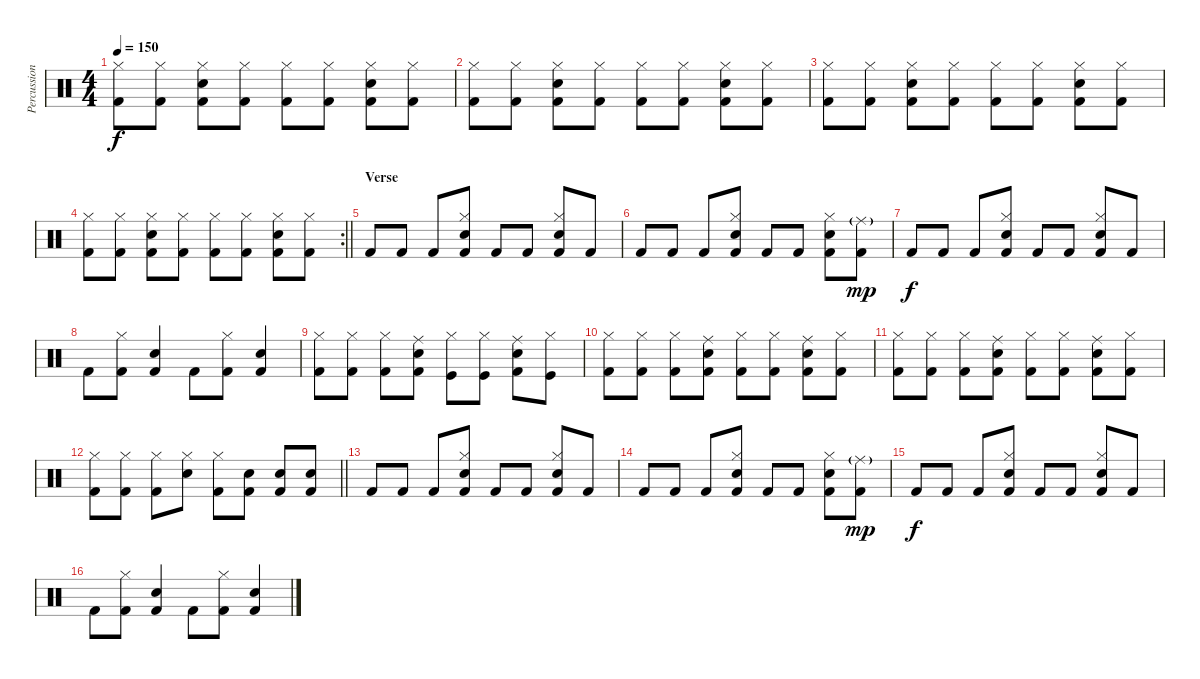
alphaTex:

\track ("Percussion" "Percussion") {instrument percussion}
\staff {score}
\articulation defaults
\ts (4 4)
\tempo 150
\clef neutral
\ks c
("Kick (hit) 2" "Hi-Hat (closed)").8{dy f} ("Kick (hit) 2" "Hi-Hat (closed)").8 ("Kick (hit) 2" "Hi-Hat (closed)" "Snare (hit) 2").8 ("Kick (hit) 2" "Hi-Hat (closed)").8 ("Kick (hit) 2" "Hi-Hat (closed)").8 ("Kick (hit) 2" "Hi-Hat (closed)").8 ("Kick (hit) 2" "Hi-Hat (closed)" "Snare (hit) 2").8 ("Kick (hit) 2" "Hi-Hat (closed)").8 |
("Kick (hit) 2" "Hi-Hat (closed)").8 ("Kick (hit) 2" "Hi-Hat (closed)").8 ("Kick (hit) 2" "Hi-Hat (closed)" "Snare (hit) 2").8 ("Kick (hit) 2" "Hi-Hat (closed)").8 ("Kick (hit) 2" "Hi-Hat (closed)").8 ("Kick (hit) 2" "Hi-Hat (closed)").8 ("Kick (hit) 2" "Hi-Hat (closed)" "Snare (hit) 2").8 ("Kick (hit) 2" "Hi-Hat (closed)").8 |
("Kick (hit) 2" "Hi-Hat (closed)").8 ("Kick (hit) 2" "Hi-Hat (closed)").8 ("Kick (hit) 2" "Hi-Hat (closed)" "Snare (hit) 2").8 ("Kick (hit) 2" "Hi-Hat (closed)").8 ("Kick (hit) 2" "Hi-Hat (closed)").8 ("Kick (hit) 2" "Hi-Hat (closed)").8 ("Kick (hit) 2" "Hi-Hat (closed)" "Snare (hit) 2").8 ("Kick (hit) 2" "Hi-Hat (closed)").8 |
\rc 2
\barLineRight lightlight
("Kick (hit) 2" "Hi-Hat (closed)").8 ("Kick (hit) 2" "Hi-Hat (closed)").8 ("Kick (hit) 2" "Hi-Hat (closed)" "Snare (hit) 2").8 ("Kick (hit) 2" "Hi-Hat (closed)").8 ("Kick (hit) 2" "Hi-Hat (closed)").8 ("Kick (hit) 2" "Hi-Hat (closed)").8 ("Kick (hit) 2" "Hi-Hat (closed)" "Snare (hit) 2").8 ("Kick (hit) 2" "Hi-Hat (closed)").8 |
\section ("" "Verse")
"Kick (hit) 2".8 "Kick (hit) 2".8 "Kick (hit) 2".8 ("Kick (hit) 2" "Snare (hit) 2" "Hi-Hat (closed)").8 "Kick (hit) 2".8 "Kick (hit) 2".8 ("Kick (hit) 2" "Snare (hit) 2" "Hi-Hat (closed)").8 "Kick (hit) 2".8 |
"Kick (hit) 2".8 "Kick (hit) 2".8 "Kick (hit) 2".8 ("Kick (hit) 2" "Snare (hit) 2" "Hi-Hat (closed)").8 "Kick (hit) 2".8 "Kick (hit) 2".8 ("Kick (hit) 2" "Snare (hit) 2" "Hi-Hat (closed)").8 ("Kick (hit) 2" "Ride (middle)"{g}).8{dy mp} |
"Kick (hit) 2".8{dy f} "Kick (hit) 2".8 "Kick (hit) 2".8 ("Kick (hit) 2" "Hi-Hat (closed)" "Snare (hit) 2").8 "Kick (hit) 2".8 "Kick (hit) 2".8 ("Kick (hit) 2" "Snare (hit) 2" "Hi-Hat (closed)").8 "Kick (hit) 2".8 |
"Kick (hit) 2".8 ("Kick (hit) 2" "Hi-Hat (closed)").8 ("Kick (hit) 2" "Snare (hit) 2").4 "Kick (hit) 2".8 ("Kick (hit) 2" "Hi-Hat (closed)").8 ("Kick (hit) 2" "Snare (hit) 2").4 |
("Kick (hit) 2" "Hi-Hat (closed)").8 ("Kick (hit) 2" "Hi-Hat (closed)").8 ("Kick (hit) 2" "Hi-Hat (closed)").8 ("Kick (hit) 2" "Ride (middle)" "Snare (hit) 2").8 ("Hi-Hat (closed)" "Kick (hit)").8 ("Hi-Hat (closed)" "Kick (hit)").8 ("Kick (hit) 2" "Ride (middle)" "Snare (hit) 2").8 ("Hi-Hat (closed)" "Kick (hit)").8 |
("Kick (hit) 2" "Hi-Hat (closed)").8 ("Kick (hit) 2" "Hi-Hat (closed)").8 ("Kick (hit) 2" "Hi-Hat (closed)").8 ("Kick (hit) 2" "Snare (hit) 2" "Ride (middle)").8 ("Kick (hit) 2" "Hi-Hat (closed)").8 ("Kick (hit) 2" "Hi-Hat (closed)").8 ("Kick (hit) 2" "Snare (hit) 2" "Ride (middle)").8 ("Kick (hit) 2" "Hi-Hat (closed)").8 |
("Kick (hit) 2" "Hi-Hat (closed)").8 ("Kick (hit) 2" "Hi-Hat (closed)").8 ("Kick (hit) 2" "Hi-Hat (closed)").8 ("Kick (hit) 2" "Snare (hit) 2" "Ride (middle)").8 ("Kick (hit) 2" "Hi-Hat (closed)").8 ("Kick (hit) 2" "Hi-Hat (closed)").8 ("Kick (hit) 2" "Snare (hit) 2" "Ride (middle)").8 ("Kick (hit) 2" "Hi-Hat (closed)").8 |
\barLineRight lightlight
("Kick (hit) 2" "Hi-Hat (closed)").8 ("Kick (hit) 2" "Hi-Hat (closed)").8 ("Kick (hit) 2" "Hi-Hat (closed)").8 ("Hi-Hat (closed)" "Snare (hit) 2").8 ("Kick (hit) 2" "Hi-Hat (closed)").8 ("Kick (hit) 2" "Snare (hit) 2").8 ("Kick (hit) 2" "Snare (hit) 2").8 ("Kick (hit) 2" "Snare (hit) 2").8 |
"Kick (hit) 2".8 "Kick (hit) 2".8 "Kick (hit) 2".8 ("Kick (hit) 2" "Snare (hit) 2" "Hi-Hat (closed)").8 "Kick (hit) 2".8 "Kick (hit) 2".8 ("Kick (hit) 2" "Snare (hit) 2" "Hi-Hat (closed)").8 "Kick (hit) 2".8 |
"Kick (hit) 2".8 "Kick (hit) 2".8 "Kick (hit) 2".8 ("Kick (hit) 2" "Snare (hit) 2" "Hi-Hat (closed)").8 "Kick (hit) 2".8 "Kick (hit) 2".8 ("Kick (hit) 2" "Snare (hit) 2" "Hi-Hat (closed)").8 ("Kick (hit) 2" "Ride (middle)"{g}).8{dy mp} |
"Kick (hit) 2".8{dy f} "Kick (hit) 2".8 "Kick (hit) 2".8 ("Kick (hit) 2" "Hi-Hat (closed)" "Snare (hit) 2").8 "Kick (hit) 2".8 "Kick (hit) 2".8 ("Kick (hit) 2" "Snare (hit) 2" "Hi-Hat (closed)").8 "Kick (hit) 2".8 |
"Kick (hit) 2".8 ("Kick (hit) 2" "Hi-Hat (closed)").8 ("Kick (hit) 2" "Snare (hit) 2").4 "Kick (hit) 2".8 ("Kick (hit) 2" "Hi-Hat (closed)").8 ("Kick (hit) 2" "Snare (hit) 2").4
